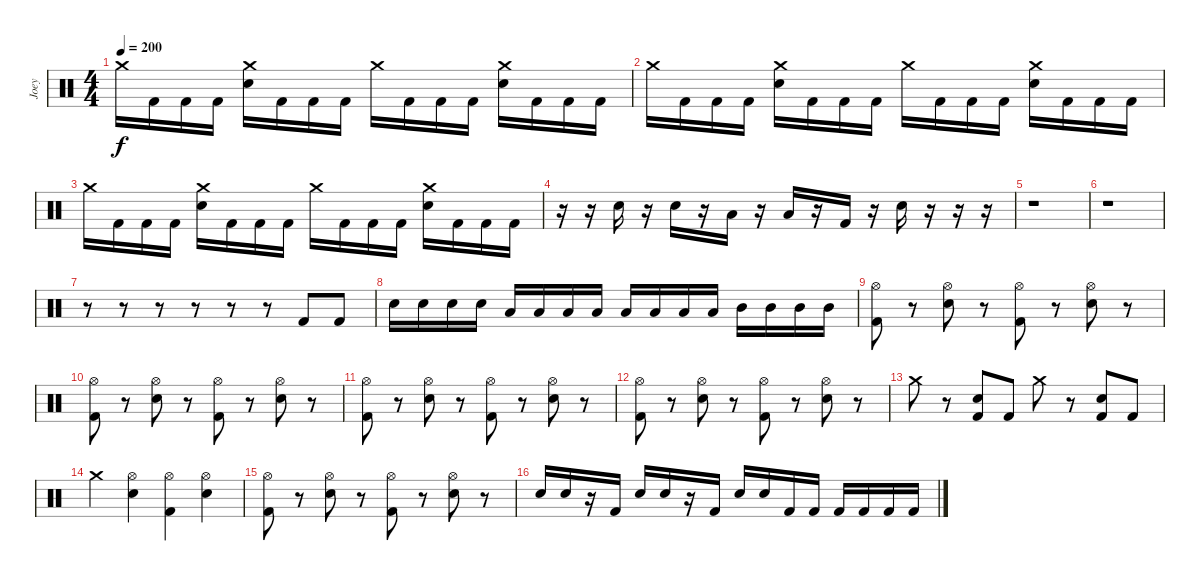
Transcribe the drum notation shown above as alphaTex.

\track ("Joey" "Joey") {instrument percussion}
\staff {score}
\articulation defaults
\ts (4 4)
\tempo 200
\clef neutral
\ks c "Crash medium (hit)".16{dy f} "Kick (hit) 2".16 "Kick (hit) 2".16 "Kick (hit) 2".16
("Crash medium (hit)" "Electric Snare (hit)").16 "Kick (hit) 2".16 "Kick (hit) 2".16 "Kick (hit) 2".16 "Crash medium (hit)".16 "Kick (hit) 2".16 "Kick (hit) 2".16 "Kick (hit) 2".16 ("Crash medium (hit)" "Electric Snare (hit)").16 "Kick (hit) 2".16 "Kick (hit) 2".16 "Kick (hit) 2".16 |
"Crash medium (hit)".16 "Kick (hit) 2".16 "Kick (hit) 2".16 "Kick (hit) 2".16 ("Crash medium (hit)" "Electric Snare (hit)").16 "Kick (hit) 2".16 "Kick (hit) 2".16 "Kick (hit) 2".16 "Crash medium (hit)".16 "Kick (hit) 2".16 "Kick (hit) 2".16 "Kick (hit) 2".16 ("Crash medium (hit)" "Electric Snare (hit)").16 "Kick (hit) 2".16 "Kick (hit) 2".16 "Kick (hit) 2".16 |
"Crash medium (hit)".16 "Kick (hit) 2".16 "Kick (hit) 2".16 "Kick (hit) 2".16 ("Crash medium (hit)" "Electric Snare (hit)").16 "Kick (hit) 2".16 "Kick (hit) 2".16 "Kick (hit) 2".16 "Crash medium (hit)".16 "Kick (hit) 2".16 "Kick (hit) 2".16 "Kick (hit) 2".16 ("Crash medium (hit)" "Electric Snare (hit)").16 "Kick (hit) 2".16 "Kick (hit) 2".16 "Kick (hit) 2".16 |
r.16 r.16 "Electric Snare (hit)".16 r.16 "Electric Snare (hit)".16 r.16 "Low Floor Tom (hit)".16 r.16 "Low Floor Tom (hit)".16 r.16 "Kick (hit) 2".16 r.16 "Electric Snare (hit)".16 r.16 r.16 r.16 |
r.1 |
r.1 |
r.8 r.8 r.8 r.8 r.8 r.8 "Kick (hit) 2".8 "Kick (hit) 2".8 |
"Electric Snare (hit)".16 "Electric Snare (hit)".16 "Electric Snare (hit)".16 "Electric Snare (hit)".16 "Low Floor Tom (hit)".16 "Low Floor Tom (hit)".16 "Low Floor Tom (hit)".16 "Low Floor Tom (hit)".16 "Low Tom (hit)".16 "Low Tom (hit)".16 "Low Tom (hit)".16 "Low Tom (hit)".16 "Mid Tom (hit)".16 "Mid Tom (hit)".16 "Mid Tom (hit)".16 "Mid Tom (hit)".16 |
("Hi-Hat (open)" "Kick (hit) 2").8 r.8 ("Hi-Hat (open)" "Electric Snare (hit)").8 r.8 ("Hi-Hat (open)" "Kick (hit) 2").8 r.8 ("Hi-Hat (open)" "Electric Snare (hit)").8 r.8 |
("Hi-Hat (open)" "Kick (hit) 2").8 r.8 ("Hi-Hat (open)" "Electric Snare (hit)").8 r.8 ("Hi-Hat (open)" "Kick (hit) 2").8 r.8 ("Hi-Hat (open)" "Electric Snare (hit)").8 r.8 |
("Hi-Hat (open)" "Kick (hit) 2").8 r.8 ("Hi-Hat (open)" "Electric Snare (hit)").8 r.8 ("Hi-Hat (open)" "Kick (hit) 2").8 r.8 ("Hi-Hat (open)" "Electric Snare (hit)").8 r.8 |
("Hi-Hat (open)" "Kick (hit) 2").8 r.8 ("Hi-Hat (open)" "Electric Snare (hit)").8 r.8 ("Hi-Hat (open)" "Kick (hit) 2").8 r.8 ("Hi-Hat (open)" "Electric Snare (hit)").8 r.8 |
"Crash medium (hit)".8 r.8 ("Electric Snare (hit)" "Kick (hit) 2").8 "Kick (hit) 2".8 "Crash medium (hit)".8 r.8 ("Electric Snare (hit)" "Kick (hit) 2").8 "Kick (hit) 2".8 |
"Crash medium (hit)".4 ("Hi-Hat (open)" "Electric Snare (hit)").4 ("Hi-Hat (open)" "Kick (hit) 2").4 ("Hi-Hat (open)" "Electric Snare (hit)").4 |
("Hi-Hat (open)" "Kick (hit) 2").8 r.8 ("Hi-Hat (open)" "Electric Snare (hit)").8 r.8 ("Hi-Hat (open)" "Kick (hit) 2").8 r.8 ("Hi-Hat (open)" "Electric Snare (hit)").8 r.8 |
"Electric Snare (hit)".16 "Electric Snare (hit)".16 r.16 "Kick (hit) 2".16 "Electric Snare (hit)".16 "Electric Snare (hit)".16 r.16 "Kick (hit) 2".16 "Electric Snare (hit)".16 "Electric Snare (hit)".16 "Kick (hit) 2".16 "Kick (hit) 2".16 "Kick (hit) 2".16 "Kick (hit) 2".16 "Kick (hit) 2".16 "Kick (hit) 2".16
